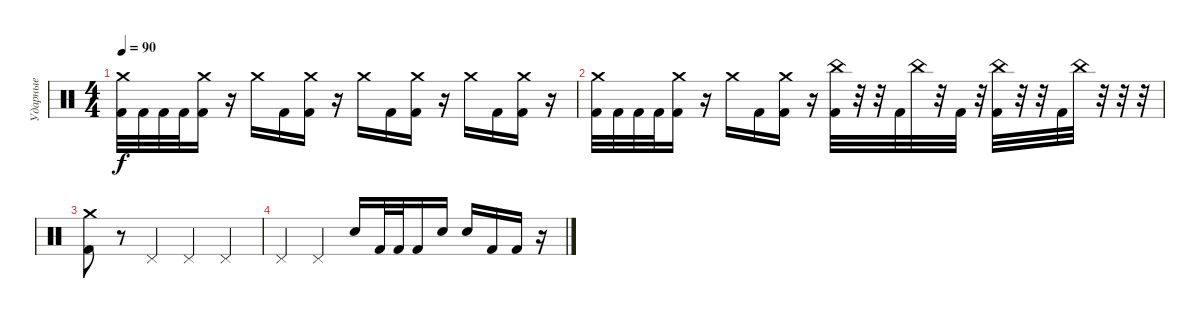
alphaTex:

\track ("Ударные" "Ударные") {instrument percussion}
\staff {score}
\articulation defaults
\ts (4 4)
\tempo 90
\clef neutral
\ks c
("Crash medium (hit)" "Kick (hit) 2").32{dy f} "Kick (hit) 2".32 "Kick (hit) 2".32 "Kick (hit) 2".32 ("Crash medium (hit)" "Kick (hit) 2").16 r.16 "Crash medium (hit)".16 "Kick (hit) 2".16 ("Crash medium (hit)" "Kick (hit) 2").16 r.16 "Crash medium (hit)".16 "Kick (hit) 2".16 ("Crash medium (hit)" "Kick (hit) 2").16 r.16 "Crash medium (hit)".16 "Kick (hit) 2".16 ("Crash medium (hit)" "Kick (hit) 2").16 r.16 |
("Crash medium (hit)" "Kick (hit) 2").32 "Kick (hit) 2".32 "Kick (hit) 2".32 "Kick (hit) 2".32 ("Crash medium (hit)" "Kick (hit) 2").16 r.16 "Crash medium (hit)".16 "Kick (hit) 2".16 ("Crash medium (hit)" "Kick (hit) 2").16 r.16 ("China (hit)" "Kick (hit) 2").32 r.32 r.32 "Kick (hit) 2".32 "China (hit)".32 r.32 "Kick (hit) 2".32 r.32 ("China (hit)" "Kick (hit) 2").32 r.32 r.32 "Kick (hit) 2".32 "China (hit)".32 r.32 r.32 r.32 |
("Crash medium (hit)" "Kick (hit) 2").8 r.8 "Pedal Hi-Hat (hit)".4 "Pedal Hi-Hat (hit)".4 "Pedal Hi-Hat (hit)".4 |
"Pedal Hi-Hat (hit)".4 "Pedal Hi-Hat (hit)".4 "Electric Snare (hit)".16 "Kick (hit) 2".32 "Kick (hit) 2".32 "Kick (hit) 2".16 "Electric Snare (hit)".16 "Electric Snare (hit)".16 "Kick (hit) 2".16 "Kick (hit) 2".16 r.16
